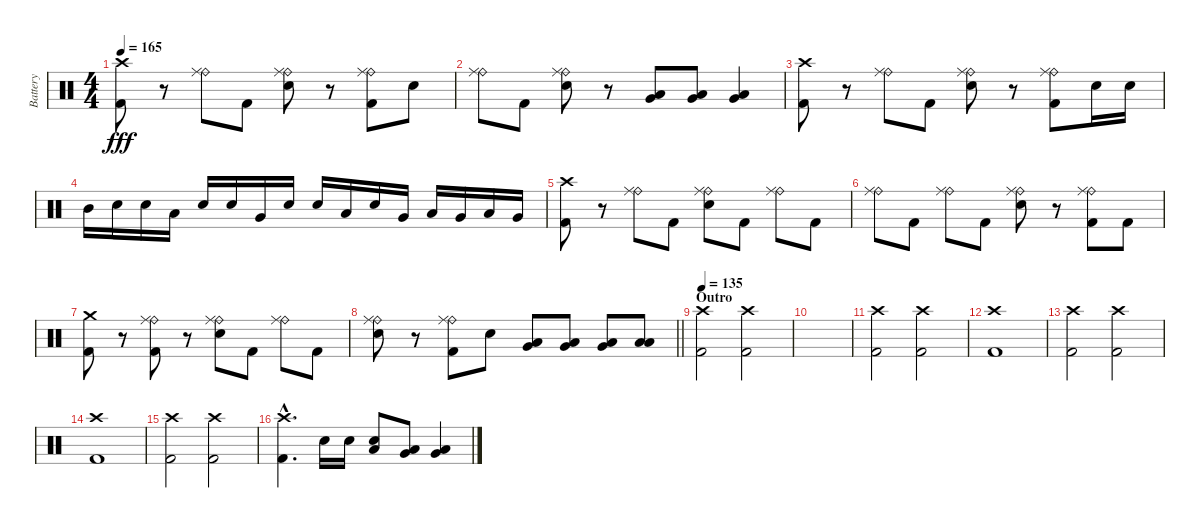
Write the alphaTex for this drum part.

\track ("Battery" "Battery") {instrument percussion}
\staff {score}
\articulation defaults
\ts (4 4)
\tempo 165
\clef neutral
\ks c
("Crash high (hit)" "Kick (hit) 2").8{dy fff} r.8 ("Ride (bell)" "Ride (middle)").8 "Kick (hit) 2".8 ("Ride (bell)" "Ride (middle)" "Electric Snare (hit)").8 r.8 ("Ride (bell)" "Ride (middle)" "Kick (hit) 2").8 "Electric Snare (hit)".8 |
("Ride (bell)" "Ride (middle)").8 "Kick (hit) 2".8 ("Ride (bell)" "Ride (middle)" "Electric Snare (hit)").8 r.8 ("Very Low Tom (hit)" "Low Tom (hit)").8 ("Low Floor Tom (hit)" "Very Low Tom (hit)").8 ("Low Floor Tom (hit)" "Very Low Tom (hit)").4 |
("Crash high (hit)" "Kick (hit) 2").8 r.8 ("Ride (bell)" "Ride (middle)").8 "Kick (hit) 2".8 ("Ride (bell)" "Ride (middle)" "Electric Snare (hit)").8 r.8 ("Ride (bell)" "Ride (middle)" "Kick (hit) 2").8 "Electric Snare (hit)".16 "Electric Snare (hit)".16 |
"Mid Tom (hit)".16 "Electric Snare (hit)".16 "Electric Snare (hit)".16 "Low Tom (hit)".16 "Electric Snare (hit)".16 "Electric Snare (hit)".16 "Very Low Tom (hit)".16 "Electric Snare (hit)".16 "Electric Snare (hit)".16 "Low Floor Tom (hit)".16 "Electric Snare (hit)".16 "Very Low Tom (hit)".16 "Low Tom (hit)".16 "Very Low Tom (hit)".16 "Low Floor Tom (hit)".16 "Very Low Tom (hit)".16 |
("Crash high (hit)" "Kick (hit) 2").8 r.8 ("Ride (bell)" "Ride (middle)").8 "Kick (hit) 2".8 ("Ride (bell)" "Ride (middle)" "Electric Snare (hit)").8 "Kick (hit) 2".8 ("Ride (bell)" "Ride (middle)").8 "Kick (hit) 2".8 |
("Ride (bell)" "Ride (middle)").8 "Kick (hit) 2".8 ("Ride (bell)" "Ride (middle)").8 "Kick (hit) 2".8 ("Ride (bell)" "Ride (middle)" "Electric Snare (hit)").8 r.8 ("Ride (bell)" "Ride (middle)" "Kick (hit) 2").8 "Kick (hit) 2".8 |
("Crash medium (hit)" "Kick (hit) 2").8 r.8 ("Ride (bell)" "Ride (middle)" "Kick (hit) 2").8 r.8 ("Ride (bell)" "Ride (middle)" "Electric Snare (hit)").8 "Kick (hit) 2".8 ("Ride (bell)" "Ride (middle)").8 "Kick (hit) 2".8 |
\barLineRight lightlight
("Ride (bell)" "Ride (middle)" "Electric Snare (hit)").8 r.8 ("Ride (bell)" "Ride (middle)" "Kick (hit) 2").8 "Electric Snare (hit)".8 ("Low Tom (hit)" "Very Low Tom (hit)").8 ("Very Low Tom (hit)" "Low Floor Tom (hit)").8 ("Very Low Tom (hit)" "Low Floor Tom (hit)").8 ("Low Floor Tom (hit)" "Low Floor Tom (hit)").8 |
\section ("" "Outro")
\tempo 135
("Crash high (hit)" "Kick (hit) 2").2 ("Crash high (hit)" "Kick (hit) 2").2 |
|
("Crash high (hit)" "Kick (hit) 2").2 ("Crash high (hit)" "Kick (hit) 2").2 |
("Crash high (hit)" "Kick (hit) 2").1 |
("Crash high (hit)" "Kick (hit) 2").2 ("Crash high (hit)" "Kick (hit) 2").2 |
("Crash high (hit)" "Kick (hit) 2").1 |
("Crash high (hit)" "Kick (hit) 2").2 ("Crash high (hit)" "Kick (hit) 2").2 |
("Crash high (hit)"{hac} "Kick (hit) 2"{hac}).4{d} "Electric Snare (hit)".16 "Electric Snare (hit)".16 ("Low Tom (hit)" "Electric Snare (hit)").8 ("Very Low Tom (hit)" "Low Tom (hit)").8 ("Low Floor Tom (hit)" "Very Low Tom (hit)").4
